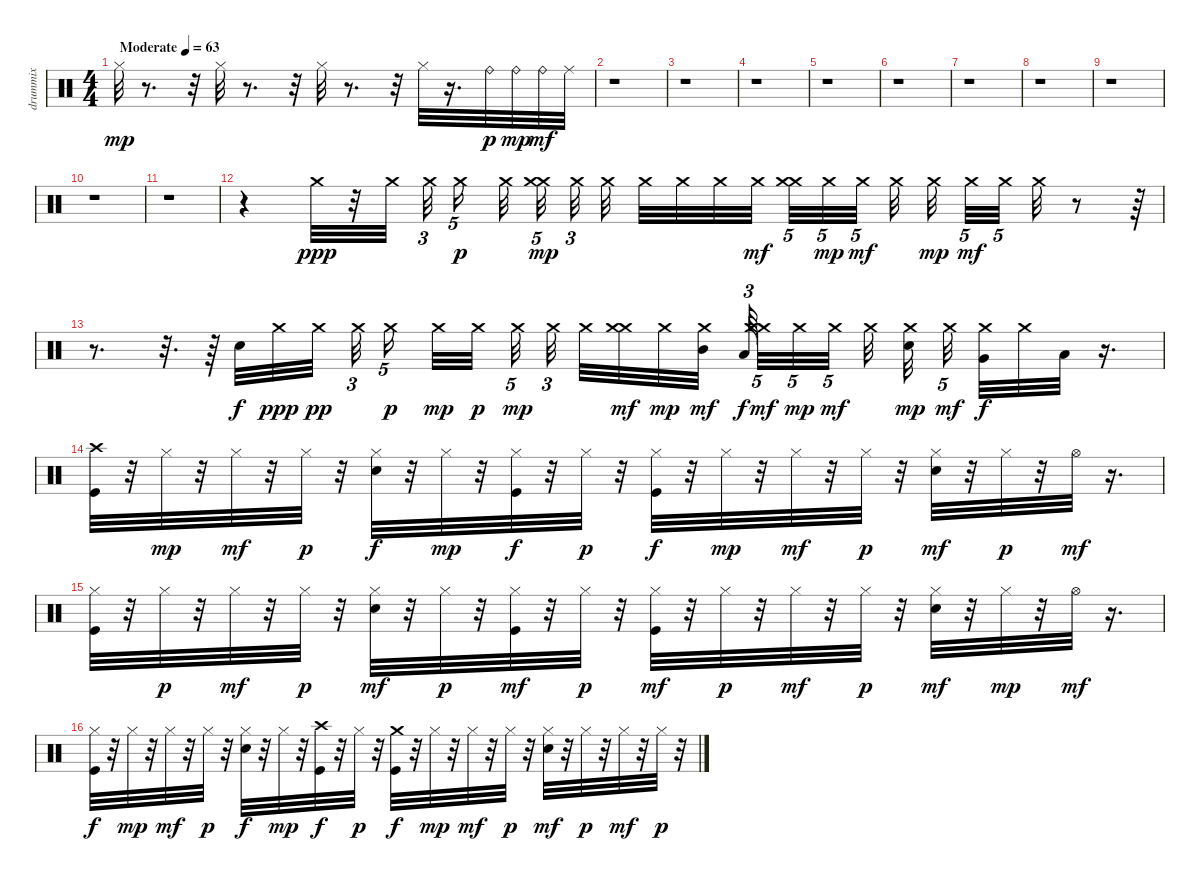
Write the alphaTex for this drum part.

\track ("drummix" "drummix") {instrument percussion}
\staff {score}
\articulation defaults
\ts (4 4)
\tempo (63 "Moderate")
\clef neutral
\ks c "Hi-Hat (closed)".32{dy mp}
r.8{d} r.32 "Hi-Hat (closed)".32 r.8{d} r.32 "Hi-Hat (closed)".32 r.8{d} r.32 "Hi-Hat (closed)".32 r.16{d} "Ride (bell)".32{dy p} "Ride (bell)".32{dy mp} "Ride (bell)".32{dy mf} "Ride (middle)".32 |
r.1 |
r.1 |
r.1 |
r.1 |
r.1 |
r.1 |
r.1 |
r.1 |
r.1 |
r.1 |
r.4 "Crash medium (hit)".32{dy ppp} r.32 "Crash medium (hit)".32{beam splitsecondary} "Crash medium (hit)".32{tu (3 2)} "Crash medium (hit)".16{tu (5 4) dy p beam splitsecondary} "Crash medium (hit)".32{beam splitsecondary} ("Crash medium (hit)" "Crash medium (hit)").32{tu (5 4) dy mp} "Crash medium (hit)".32{tu (3 2) beam splitsecondary} "Crash medium (hit)".32 "Crash medium (hit)".32 "Crash medium (hit)".32 "Crash medium (hit)".32 "Crash medium (hit)".32{dy mf beam splitsecondary} ("Crash medium (hit)" "Crash medium (hit)").32{tu (5 4)} "Crash medium (hit)".32{tu (5 4) dy mp} "Crash medium (hit)".32{tu (5 4) dy mf beam splitsecondary} "Crash medium (hit)".32 "Crash medium (hit)".32{dy mp beam splitsecondary} "Crash medium (hit)".32{tu (5 4) dy mf} "Crash medium (hit)".32{tu (5 4) beam splitsecondary} "Crash medium (hit)".32 r.8 r.64 |
r.8{d} r.32{d} r.64 "Snare (hit) 2".32{dy f} "Crash medium (hit)".32{dy ppp} "Crash medium (hit)".32{dy pp beam splitsecondary} "Crash medium (hit)".32{tu (3 2)} "Crash medium (hit)".16{tu (5 4) dy p beam splitsecondary} "Crash medium (hit)".32{dy mp} "Crash medium (hit)".32{dy p beam splitsecondary} "Crash medium (hit)".32{tu (5 4) dy mp} "Crash medium (hit)".32{tu (3 2) beam splitsecondary} "Crash medium (hit)".32 ("Crash medium (hit)" "Crash medium (hit)").32{dy mf} "Crash medium (hit)".32{dy mp} ("Crash medium (hit)" "Mid Tom (hit)").32{dy mf beam splitsecondary} "Low Tom (hit)".64{tu (3 2) dy f} ("Crash medium (hit)" "Crash medium (hit)").32{tu (5 4) dy mf} "Crash medium (hit)".32{tu (5 4) dy mp} "Crash medium (hit)".32{tu (5 4) dy mf beam splitsecondary} "Crash medium (hit)".32 ("Snare (hit) 2" "Crash medium (hit)").32{dy mp beam splitsecondary} "Crash medium (hit)".32{tu (5 4) dy mf beam splitsecondary} ("Crash medium (hit)" "Very Low Tom (hit)").32{dy f} "Crash medium (hit)".32 "Low Floor Tom (hit)".32 r.16{d} |
("Kick (hit)" "Crash high (hit)").32 r.32 "Hi-Hat (closed)".32{dy mp} r.32 "Hi-Hat (closed)".32{dy mf} r.32 "Hi-Hat (closed)".32{dy p} r.32 ("Snare (hit) 2" "Hi-Hat (closed)").32{dy f} r.32 "Hi-Hat (closed)".32{dy mp} r.32 ("Kick (hit)" "Hi-Hat (closed)").32{dy f} r.32 "Hi-Hat (closed)".32{dy p} r.32 ("Kick (hit)" "Hi-Hat (closed)").32{dy f} r.32 "Hi-Hat (closed)".32{dy mp} r.32 "Hi-Hat (closed)".32{dy mf} r.32 "Hi-Hat (closed)".32{dy p} r.32 ("Snare (hit) 2" "Hi-Hat (closed)").32{dy mf} r.32 "Hi-Hat (closed)".32{dy p} r.32 "Hi-Hat (open)".32{dy mf} r.16{d} |
("Kick (hit)" "Hi-Hat (closed)").32 r.32 "Hi-Hat (closed)".32{dy p} r.32 "Hi-Hat (closed)".32{dy mf} r.32 "Hi-Hat (closed)".32{dy p} r.32 ("Snare (hit) 2" "Hi-Hat (closed)").32{dy mf} r.32 "Hi-Hat (closed)".32{dy p} r.32 ("Kick (hit)" "Hi-Hat (closed)").32{dy mf} r.32 "Hi-Hat (closed)".32{dy p} r.32 ("Kick (hit)" "Hi-Hat (closed)").32{dy mf} r.32 "Hi-Hat (closed)".32{dy p} r.32 "Hi-Hat (closed)".32{dy mf} r.32 "Hi-Hat (closed)".32{dy p} r.32 ("Snare (hit) 2" "Hi-Hat (closed)").32{dy mf} r.32 "Hi-Hat (closed)".32{dy mp} r.32 "Hi-Hat (open)".32{dy mf} r.16{d} |
("Kick (hit)" "Hi-Hat (closed)").32{dy f} r.32 "Hi-Hat (closed)".32{dy mp} r.32 "Hi-Hat (closed)".32{dy mf} r.32 "Hi-Hat (closed)".32{dy p} r.32 ("Snare (hit) 2" "Hi-Hat (closed)").32{dy f} r.32 "Hi-Hat (closed)".32{dy mp} r.32 ("Kick (hit)" "Crash high (hit)").32{dy f} r.32 "Hi-Hat (closed)".32{dy p} r.32 ("Kick (hit)" "Crash medium (hit)").32{dy f} r.32 "Hi-Hat (closed)".32{dy mp} r.32 "Hi-Hat (closed)".32{dy mf} r.32 "Hi-Hat (closed)".32{dy p} r.32 ("Snare (hit) 2" "Hi-Hat (closed)").32{dy mf} r.32 "Hi-Hat (closed)".32{dy p} r.32 "Hi-Hat (closed)".32{dy mf} r.32 "Hi-Hat (closed)".32{dy p} r.32
